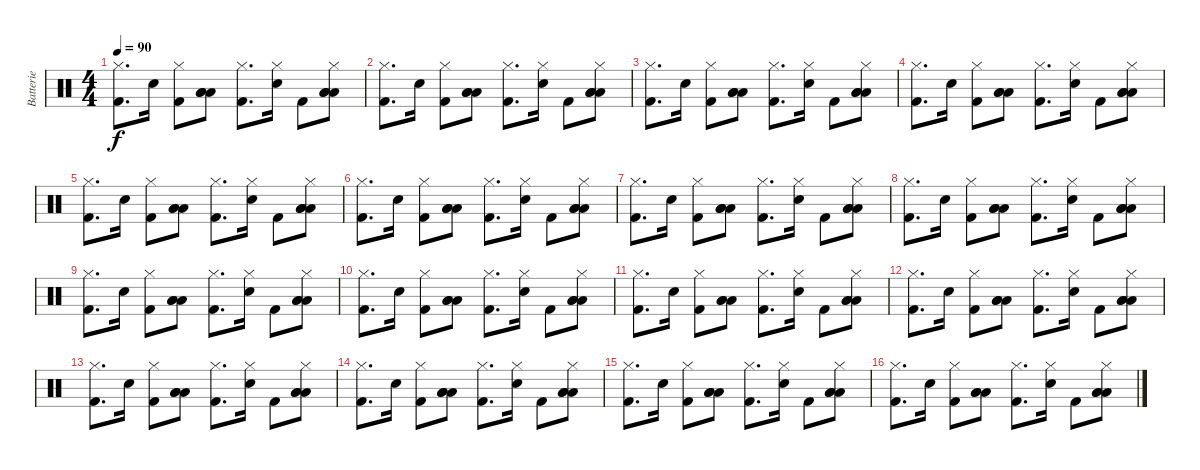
\track ("Batterie" "Batterie") {instrument percussion}
\staff {score}
\articulation defaults
\ts (4 4)
\tempo 90
\clef neutral
\ks c
("Kick (hit) 2" "Hi-Hat (closed)").8{d dy f} "Electric Snare (hit)".16 ("Kick (hit) 2" "Hi-Hat (closed)").8 ("Low Tom (hit)" "Low Tom (hit)" "Low Tom (hit)").8 ("Kick (hit) 2" "Hi-Hat (closed)").8{d} ("Electric Snare (hit)" "Hi-Hat (closed)").16 "Kick (hit) 2".8 ("Low Tom (hit)" "Low Tom (hit)" "Low Tom (hit)" "Hi-Hat (closed)").8 |
("Kick (hit) 2" "Hi-Hat (closed)").8{d} "Electric Snare (hit)".16 ("Kick (hit) 2" "Hi-Hat (closed)").8 ("Low Tom (hit)" "Low Tom (hit)" "Low Tom (hit)").8 ("Kick (hit) 2" "Hi-Hat (closed)").8{d} ("Electric Snare (hit)" "Hi-Hat (closed)").16 "Kick (hit) 2".8 ("Low Tom (hit)" "Low Tom (hit)" "Low Tom (hit)" "Hi-Hat (closed)").8 |
("Kick (hit) 2" "Hi-Hat (closed)").8{d} "Electric Snare (hit)".16 ("Kick (hit) 2" "Hi-Hat (closed)").8 ("Low Tom (hit)" "Low Tom (hit)" "Low Tom (hit)").8 ("Kick (hit) 2" "Hi-Hat (closed)").8{d} ("Electric Snare (hit)" "Hi-Hat (closed)").16 "Kick (hit) 2".8 ("Low Tom (hit)" "Low Tom (hit)" "Low Tom (hit)" "Hi-Hat (closed)").8 |
("Kick (hit) 2" "Hi-Hat (closed)").8{d} "Electric Snare (hit)".16 ("Kick (hit) 2" "Hi-Hat (closed)").8 ("Low Tom (hit)" "Low Tom (hit)" "Low Tom (hit)").8 ("Kick (hit) 2" "Hi-Hat (closed)").8{d} ("Electric Snare (hit)" "Hi-Hat (closed)").16 "Kick (hit) 2".8 ("Low Tom (hit)" "Low Tom (hit)" "Low Tom (hit)" "Hi-Hat (closed)").8 |
("Kick (hit) 2" "Hi-Hat (closed)").8{d} "Electric Snare (hit)".16 ("Kick (hit) 2" "Hi-Hat (closed)").8 ("Low Tom (hit)" "Low Tom (hit)" "Low Tom (hit)").8 ("Kick (hit) 2" "Hi-Hat (closed)").8{d} ("Electric Snare (hit)" "Hi-Hat (closed)").16 "Kick (hit) 2".8 ("Low Tom (hit)" "Low Tom (hit)" "Low Tom (hit)" "Hi-Hat (closed)").8 |
("Kick (hit) 2" "Hi-Hat (closed)").8{d} "Electric Snare (hit)".16 ("Kick (hit) 2" "Hi-Hat (closed)").8 ("Low Tom (hit)" "Low Tom (hit)" "Low Tom (hit)").8 ("Kick (hit) 2" "Hi-Hat (closed)").8{d} ("Electric Snare (hit)" "Hi-Hat (closed)").16 "Kick (hit) 2".8 ("Low Tom (hit)" "Low Tom (hit)" "Low Tom (hit)" "Hi-Hat (closed)").8 |
("Kick (hit) 2" "Hi-Hat (closed)").8{d} "Electric Snare (hit)".16 ("Kick (hit) 2" "Hi-Hat (closed)").8 ("Low Tom (hit)" "Low Tom (hit)" "Low Tom (hit)").8 ("Kick (hit) 2" "Hi-Hat (closed)").8{d} ("Electric Snare (hit)" "Hi-Hat (closed)").16 "Kick (hit) 2".8 ("Low Tom (hit)" "Low Tom (hit)" "Low Tom (hit)" "Hi-Hat (closed)").8 |
("Kick (hit) 2" "Hi-Hat (closed)").8{d} "Electric Snare (hit)".16 ("Kick (hit) 2" "Hi-Hat (closed)").8 ("Low Tom (hit)" "Low Tom (hit)" "Low Tom (hit)").8 ("Kick (hit) 2" "Hi-Hat (closed)").8{d} ("Electric Snare (hit)" "Hi-Hat (closed)").16 "Kick (hit) 2".8 ("Low Tom (hit)" "Low Tom (hit)" "Low Tom (hit)" "Hi-Hat (closed)").8 |
("Kick (hit) 2" "Hi-Hat (closed)").8{d} "Electric Snare (hit)".16 ("Kick (hit) 2" "Hi-Hat (closed)").8 ("Low Tom (hit)" "Low Tom (hit)" "Low Tom (hit)").8 ("Kick (hit) 2" "Hi-Hat (closed)").8{d} ("Electric Snare (hit)" "Hi-Hat (closed)").16 "Kick (hit) 2".8 ("Low Tom (hit)" "Low Tom (hit)" "Low Tom (hit)" "Hi-Hat (closed)").8 |
("Kick (hit) 2" "Hi-Hat (closed)").8{d} "Electric Snare (hit)".16 ("Kick (hit) 2" "Hi-Hat (closed)").8 ("Low Tom (hit)" "Low Tom (hit)" "Low Tom (hit)").8 ("Kick (hit) 2" "Hi-Hat (closed)").8{d} ("Electric Snare (hit)" "Hi-Hat (closed)").16 "Kick (hit) 2".8 ("Low Tom (hit)" "Low Tom (hit)" "Low Tom (hit)" "Hi-Hat (closed)").8 |
("Kick (hit) 2" "Hi-Hat (closed)").8{d} "Electric Snare (hit)".16 ("Kick (hit) 2" "Hi-Hat (closed)").8 ("Low Tom (hit)" "Low Tom (hit)" "Low Tom (hit)").8 ("Kick (hit) 2" "Hi-Hat (closed)").8{d} ("Electric Snare (hit)" "Hi-Hat (closed)").16 "Kick (hit) 2".8 ("Low Tom (hit)" "Low Tom (hit)" "Low Tom (hit)" "Hi-Hat (closed)").8 |
("Kick (hit) 2" "Hi-Hat (closed)").8{d} "Electric Snare (hit)".16 ("Kick (hit) 2" "Hi-Hat (closed)").8 ("Low Tom (hit)" "Low Tom (hit)" "Low Tom (hit)").8 ("Kick (hit) 2" "Hi-Hat (closed)").8{d} ("Electric Snare (hit)" "Hi-Hat (closed)").16 "Kick (hit) 2".8 ("Low Tom (hit)" "Low Tom (hit)" "Low Tom (hit)" "Hi-Hat (closed)").8 |
("Kick (hit) 2" "Hi-Hat (closed)").8{d} "Electric Snare (hit)".16 ("Kick (hit) 2" "Hi-Hat (closed)").8 ("Low Tom (hit)" "Low Tom (hit)" "Low Tom (hit)").8 ("Kick (hit) 2" "Hi-Hat (closed)").8{d} ("Electric Snare (hit)" "Hi-Hat (closed)").16 "Kick (hit) 2".8 ("Low Tom (hit)" "Low Tom (hit)" "Low Tom (hit)" "Hi-Hat (closed)").8 |
("Kick (hit) 2" "Hi-Hat (closed)").8{d} "Electric Snare (hit)".16 ("Kick (hit) 2" "Hi-Hat (closed)").8 ("Low Tom (hit)" "Low Tom (hit)" "Low Tom (hit)").8 ("Kick (hit) 2" "Hi-Hat (closed)").8{d} ("Electric Snare (hit)" "Hi-Hat (closed)").16 "Kick (hit) 2".8 ("Low Tom (hit)" "Low Tom (hit)" "Low Tom (hit)" "Hi-Hat (closed)").8 |
("Kick (hit) 2" "Hi-Hat (closed)").8{d} "Electric Snare (hit)".16 ("Kick (hit) 2" "Hi-Hat (closed)").8 ("Low Tom (hit)" "Low Tom (hit)" "Low Tom (hit)").8 ("Kick (hit) 2" "Hi-Hat (closed)").8{d} ("Electric Snare (hit)" "Hi-Hat (closed)").16 "Kick (hit) 2".8 ("Low Tom (hit)" "Low Tom (hit)" "Low Tom (hit)" "Hi-Hat (closed)").8 |
("Kick (hit) 2" "Hi-Hat (closed)").8{d} "Electric Snare (hit)".16 ("Kick (hit) 2" "Hi-Hat (closed)").8 ("Low Tom (hit)" "Low Tom (hit)" "Low Tom (hit)").8 ("Kick (hit) 2" "Hi-Hat (closed)").8{d} ("Electric Snare (hit)" "Hi-Hat (closed)").16 "Kick (hit) 2".8 ("Low Tom (hit)" "Low Tom (hit)" "Low Tom (hit)" "Hi-Hat (closed)").8
